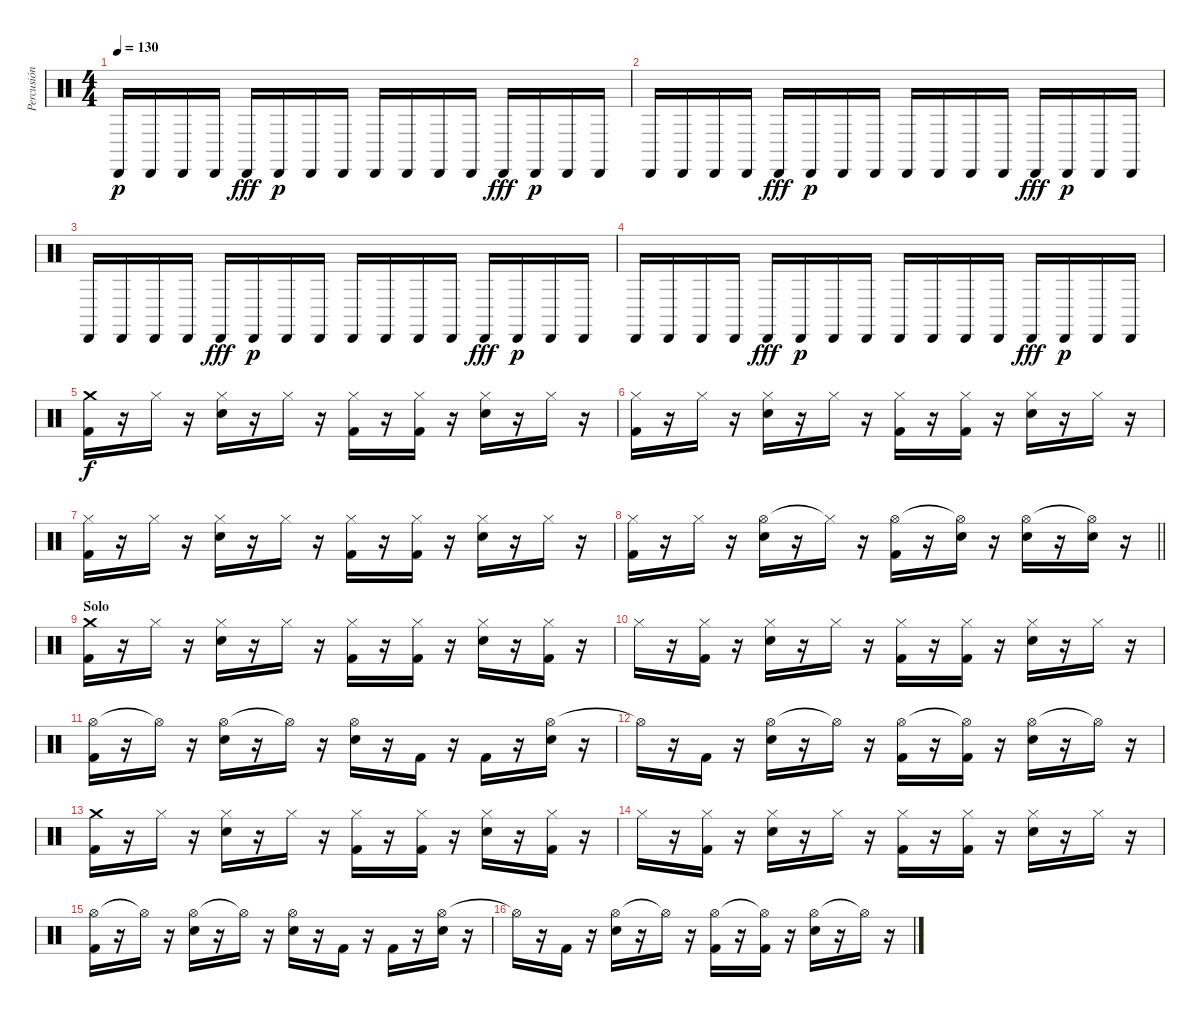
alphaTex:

\track ("Percusión" "Percusión") {instrument percussion}
\staff {score}
\articulation defaults
\ts (4 4)
\tempo 130
\clef neutral
\ks c "Cabasa (hit)".16{dy p} "Cabasa (hit)".16 "Cabasa (hit)".16 "Cabasa (hit)".16 "Cabasa (hit)".16{dy fff} "Cabasa (hit)".16{dy p} "Cabasa (hit)".16 "Cabasa (hit)".16 "Cabasa (hit)".16 "Cabasa (hit)".16 "Cabasa (hit)".16 "Cabasa (hit)".16 "Cabasa (hit)".16{dy fff} "Cabasa (hit)".16{dy p} "Cabasa (hit)".16 "Cabasa (hit)".16
|
"Cabasa (hit)".16 "Cabasa (hit)".16 "Cabasa (hit)".16 "Cabasa (hit)".16 "Cabasa (hit)".16{dy fff} "Cabasa (hit)".16{dy p} "Cabasa (hit)".16 "Cabasa (hit)".16 "Cabasa (hit)".16 "Cabasa (hit)".16 "Cabasa (hit)".16 "Cabasa (hit)".16 "Cabasa (hit)".16{dy fff} "Cabasa (hit)".16{dy p} "Cabasa (hit)".16 "Cabasa (hit)".16 |
"Cabasa (hit)".16 "Cabasa (hit)".16 "Cabasa (hit)".16 "Cabasa (hit)".16 "Cabasa (hit)".16{dy fff} "Cabasa (hit)".16{dy p} "Cabasa (hit)".16 "Cabasa (hit)".16 "Cabasa (hit)".16 "Cabasa (hit)".16 "Cabasa (hit)".16 "Cabasa (hit)".16 "Cabasa (hit)".16{dy fff} "Cabasa (hit)".16{dy p} "Cabasa (hit)".16 "Cabasa (hit)".16 |
"Cabasa (hit)".16 "Cabasa (hit)".16 "Cabasa (hit)".16 "Cabasa (hit)".16 "Cabasa (hit)".16{dy fff} "Cabasa (hit)".16{dy p} "Cabasa (hit)".16 "Cabasa (hit)".16 "Cabasa (hit)".16 "Cabasa (hit)".16 "Cabasa (hit)".16 "Cabasa (hit)".16 "Cabasa (hit)".16{dy fff} "Cabasa (hit)".16{dy p} "Cabasa (hit)".16 "Cabasa (hit)".16 |
("Crash medium (hit)" "Kick (hit) 2").16{dy f} r.16 "Hi-Hat (closed)".16 r.16 ("Hi-Hat (closed)" "Electric Snare (hit)").16 r.16 "Hi-Hat (closed)".16 r.16 ("Hi-Hat (closed)" "Kick (hit) 2").16 r.16 ("Hi-Hat (closed)" "Kick (hit) 2").16 r.16 ("Hi-Hat (closed)" "Electric Snare (hit)").16 r.16 "Hi-Hat (closed)".16 r.16 |
("Hi-Hat (closed)" "Kick (hit) 2").16 r.16 "Hi-Hat (closed)".16 r.16 ("Hi-Hat (closed)" "Electric Snare (hit)").16 r.16 "Hi-Hat (closed)".16 r.16 ("Hi-Hat (closed)" "Kick (hit) 2").16 r.16 ("Hi-Hat (closed)" "Kick (hit) 2").16 r.16 ("Hi-Hat (closed)" "Electric Snare (hit)").16 r.16 "Hi-Hat (closed)".16 r.16 |
("Hi-Hat (closed)" "Kick (hit) 2").16 r.16 "Hi-Hat (closed)".16 r.16 ("Hi-Hat (closed)" "Electric Snare (hit)").16 r.16 "Hi-Hat (closed)".16 r.16 ("Hi-Hat (closed)" "Kick (hit) 2").16 r.16 ("Hi-Hat (closed)" "Kick (hit) 2").16 r.16 ("Hi-Hat (closed)" "Electric Snare (hit)").16 r.16 "Hi-Hat (closed)".16 r.16 |
\barLineRight lightlight
("Hi-Hat (closed)" "Kick (hit) 2").16 r.16 "Hi-Hat (closed)".16 r.16 ("Hi-Hat (open)" "Electric Snare (hit)").16 r.16 "Hi-Hat (closed)"{t}.16 r.16 ("Hi-Hat (open)" "Kick (hit) 2").16 r.16 ("Hi-Hat (open)"{t} "Electric Snare (hit)").16 r.16 ("Hi-Hat (open)" "Electric Snare (hit)").16 r.16 ("Hi-Hat (open)"{t} "Electric Snare (hit)").16 r.16 |
\section ("" "Solo")
("Crash medium (hit)" "Kick (hit) 2").16 r.16 "Hi-Hat (closed)".16 r.16 ("Hi-Hat (closed)" "Electric Snare (hit)").16 r.16 "Hi-Hat (closed)".16 r.16 ("Hi-Hat (closed)" "Kick (hit) 2").16 r.16 ("Hi-Hat (closed)" "Kick (hit) 2").16 r.16 ("Hi-Hat (closed)" "Electric Snare (hit)").16 r.16 ("Hi-Hat (closed)" "Kick (hit) 2").16 r.16 |
"Hi-Hat (closed)".16 r.16 ("Hi-Hat (closed)" "Kick (hit) 2").16 r.16 ("Hi-Hat (closed)" "Electric Snare (hit)").16 r.16 "Hi-Hat (closed)".16 r.16 ("Hi-Hat (closed)" "Kick (hit) 2").16 r.16 ("Hi-Hat (closed)" "Kick (hit) 2").16 r.16 ("Hi-Hat (closed)" "Electric Snare (hit)").16 r.16 "Hi-Hat (closed)".16 r.16 |
("Hi-Hat (open)" "Kick (hit) 2").16 r.16 "Hi-Hat (open)"{t}.16 r.16 ("Hi-Hat (open)" "Electric Snare (hit)").16 r.16 "Hi-Hat (open)"{t}.16 r.16 ("Hi-Hat (open)" "Electric Snare (hit)").16 r.16 "Kick (hit) 2".16 r.16 "Kick (hit) 2".16 r.16 ("Hi-Hat (open)" "Electric Snare (hit)").16 r.16 |
"Hi-Hat (open)"{t}.16 r.16 "Kick (hit) 2".16 r.16 ("Hi-Hat (open)" "Electric Snare (hit)").16 r.16 "Hi-Hat (open)"{t}.16 r.16 ("Hi-Hat (open)" "Kick (hit) 2").16 r.16 ("Hi-Hat (open)"{t} "Kick (hit) 2").16 r.16 ("Hi-Hat (open)" "Electric Snare (hit)").16 r.16 "Hi-Hat (open)"{t}.16 r.16 |
("Crash medium (hit)" "Kick (hit) 2").16 r.16 "Hi-Hat (closed)".16 r.16 ("Hi-Hat (closed)" "Electric Snare (hit)").16 r.16 "Hi-Hat (closed)".16 r.16 ("Hi-Hat (closed)" "Kick (hit) 2").16 r.16 ("Hi-Hat (closed)" "Kick (hit) 2").16 r.16 ("Hi-Hat (closed)" "Electric Snare (hit)").16 r.16 ("Hi-Hat (closed)" "Kick (hit) 2").16 r.16 |
"Hi-Hat (closed)".16 r.16 ("Hi-Hat (closed)" "Kick (hit) 2").16 r.16 ("Hi-Hat (closed)" "Electric Snare (hit)").16 r.16 "Hi-Hat (closed)".16 r.16 ("Hi-Hat (closed)" "Kick (hit) 2").16 r.16 ("Hi-Hat (closed)" "Kick (hit) 2").16 r.16 ("Hi-Hat (closed)" "Electric Snare (hit)").16 r.16 "Hi-Hat (closed)".16 r.16 |
("Hi-Hat (open)" "Kick (hit) 2").16 r.16 "Hi-Hat (open)"{t}.16 r.16 ("Hi-Hat (open)" "Electric Snare (hit)").16 r.16 "Hi-Hat (open)"{t}.16 r.16 ("Hi-Hat (open)" "Electric Snare (hit)").16 r.16 "Kick (hit) 2".16 r.16 "Kick (hit) 2".16 r.16 ("Hi-Hat (open)" "Electric Snare (hit)").16 r.16 |
"Hi-Hat (open)"{t}.16 r.16 "Kick (hit) 2".16 r.16 ("Hi-Hat (open)" "Electric Snare (hit)").16 r.16 "Hi-Hat (open)"{t}.16 r.16 ("Hi-Hat (open)" "Kick (hit) 2").16 r.16 ("Hi-Hat (open)"{t} "Kick (hit) 2").16 r.16 ("Hi-Hat (open)" "Electric Snare (hit)").16 r.16 "Hi-Hat (open)"{t}.16 r.16
